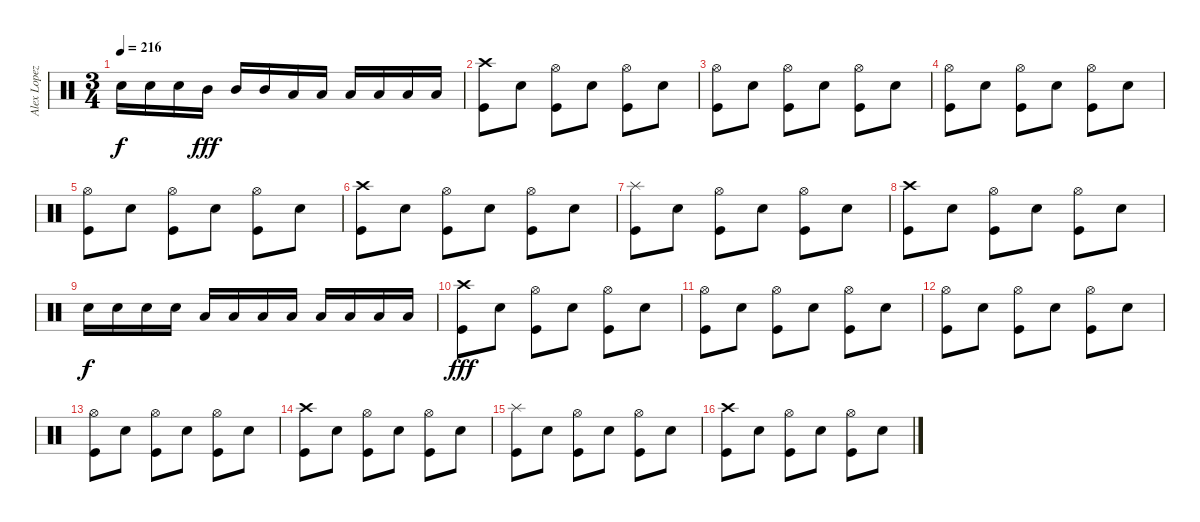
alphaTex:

\track ("Alex Lopez" "Alex Lopez") {instrument percussion}
\staff {score}
\articulation defaults
\ts (3 4)
\tempo 216
\clef neutral
\ks c "Electric Snare (hit)".16{dy f} "Electric Snare (hit)".16 "Electric Snare (hit)".16 "Mid Tom (hit)".16{dy fff} "Mid Tom (hit)".16 "Mid Tom (hit)".16 "Low Tom (hit)".16 "Low Tom (hit)".16 "Low Tom (hit)".16 "Low Floor Tom (hit)".16 "Low Floor Tom (hit)".16 "Low Floor Tom (hit)".16
|
("Crash high (hit)" "Kick (hit)").8 "Electric Snare (hit)".8 ("Hi-Hat (open)" "Kick (hit)").8 "Electric Snare (hit)".8 ("Hi-Hat (open)" "Kick (hit)").8 "Electric Snare (hit)".8 |
("Hi-Hat (open)" "Kick (hit)").8 "Electric Snare (hit)".8 ("Hi-Hat (open)" "Kick (hit)").8 "Electric Snare (hit)".8 ("Hi-Hat (open)" "Kick (hit)").8 "Electric Snare (hit)".8 |
("Hi-Hat (open)" "Kick (hit)").8 "Electric Snare (hit)".8 ("Hi-Hat (open)" "Kick (hit)").8 "Electric Snare (hit)".8 ("Hi-Hat (open)" "Kick (hit)").8 "Electric Snare (hit)".8 |
("Hi-Hat (open)" "Kick (hit)").8 "Electric Snare (hit)".8 ("Hi-Hat (open)" "Kick (hit)").8 "Electric Snare (hit)".8 ("Hi-Hat (open)" "Kick (hit)").8 "Electric Snare (hit)".8 |
("Crash high (hit)" "Kick (hit)").8 "Electric Snare (hit)".8 ("Hi-Hat (open)" "Kick (hit)").8 "Electric Snare (hit)".8 ("Hi-Hat (open)" "Kick (hit)").8 "Electric Snare (hit)".8 |
("Splash (hit)" "Kick (hit)").8 "Electric Snare (hit)".8 ("Hi-Hat (open)" "Kick (hit)").8 "Electric Snare (hit)".8 ("Hi-Hat (open)" "Kick (hit)").8 "Electric Snare (hit)".8 |
("Crash high (hit)" "Kick (hit)").8 "Electric Snare (hit)".8 ("Hi-Hat (open)" "Kick (hit)").8 "Electric Snare (hit)".8 ("Hi-Hat (open)" "Kick (hit)").8 "Electric Snare (hit)".8 |
"Electric Snare (hit)".16{dy f} "Electric Snare (hit)".16 "Electric Snare (hit)".16 "Electric Snare (hit)".16 "Low Tom (hit)".16 "Low Tom (hit)".16 "Low Tom (hit)".16 "Low Tom (hit)".16 "Low Floor Tom (hit)".16 "Low Floor Tom (hit)".16 "Low Floor Tom (hit)".16 "Low Floor Tom (hit)".16 |
("Crash high (hit)" "Kick (hit)").8{dy fff} "Electric Snare (hit)".8 ("Hi-Hat (open)" "Kick (hit)").8 "Electric Snare (hit)".8 ("Hi-Hat (open)" "Kick (hit)").8 "Electric Snare (hit)".8 |
("Hi-Hat (open)" "Kick (hit)").8 "Electric Snare (hit)".8 ("Hi-Hat (open)" "Kick (hit)").8 "Electric Snare (hit)".8 ("Hi-Hat (open)" "Kick (hit)").8 "Electric Snare (hit)".8 |
("Hi-Hat (open)" "Kick (hit)").8 "Electric Snare (hit)".8 ("Hi-Hat (open)" "Kick (hit)").8 "Electric Snare (hit)".8 ("Hi-Hat (open)" "Kick (hit)").8 "Electric Snare (hit)".8 |
("Hi-Hat (open)" "Kick (hit)").8 "Electric Snare (hit)".8 ("Hi-Hat (open)" "Kick (hit)").8 "Electric Snare (hit)".8 ("Hi-Hat (open)" "Kick (hit)").8 "Electric Snare (hit)".8 |
("Crash high (hit)" "Kick (hit)").8 "Electric Snare (hit)".8 ("Hi-Hat (open)" "Kick (hit)").8 "Electric Snare (hit)".8 ("Hi-Hat (open)" "Kick (hit)").8 "Electric Snare (hit)".8 |
("Splash (hit)" "Kick (hit)").8 "Electric Snare (hit)".8 ("Hi-Hat (open)" "Kick (hit)").8 "Electric Snare (hit)".8 ("Hi-Hat (open)" "Kick (hit)").8 "Electric Snare (hit)".8 |
("Crash high (hit)" "Kick (hit)").8 "Electric Snare (hit)".8 ("Hi-Hat (open)" "Kick (hit)").8 "Electric Snare (hit)".8 ("Hi-Hat (open)" "Kick (hit)").8 "Electric Snare (hit)".8
